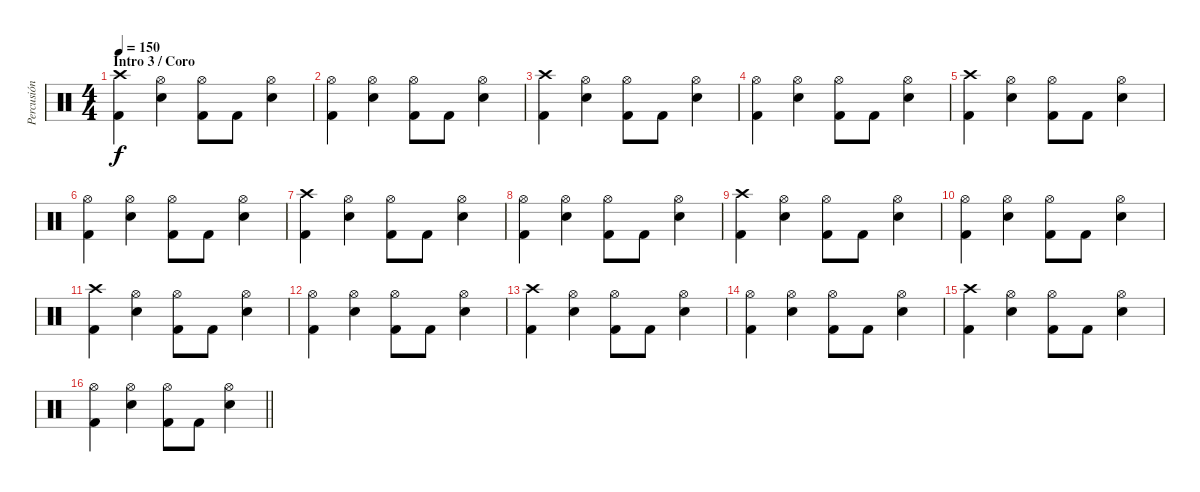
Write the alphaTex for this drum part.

\track ("Percusión" "Percusión") {instrument percussion}
\staff {score}
\articulation defaults
\ts (4 4)
\section ("" "Intro 3 / Coro")
\tempo 150
\clef neutral
\ks c
("Crash high (hit)" "Kick (hit) 2").4{dy f} ("Hi-Hat (open)" "Electric Snare (hit)").4 ("Hi-Hat (open)" "Kick (hit) 2").8 "Kick (hit) 2".8 ("Hi-Hat (open)" "Electric Snare (hit)").4 |
("Hi-Hat (open)" "Kick (hit) 2").4 ("Hi-Hat (open)" "Electric Snare (hit)").4 ("Hi-Hat (open)" "Kick (hit) 2").8 "Kick (hit) 2".8 ("Hi-Hat (open)" "Electric Snare (hit)").4 |
("Crash high (hit)" "Kick (hit) 2").4 ("Hi-Hat (open)" "Electric Snare (hit)").4 ("Hi-Hat (open)" "Kick (hit) 2").8 "Kick (hit) 2".8 ("Hi-Hat (open)" "Electric Snare (hit)").4 |
("Hi-Hat (open)" "Kick (hit) 2").4 ("Hi-Hat (open)" "Electric Snare (hit)").4 ("Hi-Hat (open)" "Kick (hit) 2").8 "Kick (hit) 2".8 ("Hi-Hat (open)" "Electric Snare (hit)").4 |
("Crash high (hit)" "Kick (hit) 2").4 ("Hi-Hat (open)" "Electric Snare (hit)").4 ("Hi-Hat (open)" "Kick (hit) 2").8 "Kick (hit) 2".8 ("Hi-Hat (open)" "Electric Snare (hit)").4 |
("Hi-Hat (open)" "Kick (hit) 2").4 ("Hi-Hat (open)" "Electric Snare (hit)").4 ("Hi-Hat (open)" "Kick (hit) 2").8 "Kick (hit) 2".8 ("Hi-Hat (open)" "Electric Snare (hit)").4 |
("Crash high (hit)" "Kick (hit) 2").4 ("Hi-Hat (open)" "Electric Snare (hit)").4 ("Hi-Hat (open)" "Kick (hit) 2").8 "Kick (hit) 2".8 ("Hi-Hat (open)" "Electric Snare (hit)").4 |
("Hi-Hat (open)" "Kick (hit) 2").4 ("Hi-Hat (open)" "Electric Snare (hit)").4 ("Hi-Hat (open)" "Kick (hit) 2").8 "Kick (hit) 2".8 ("Hi-Hat (open)" "Electric Snare (hit)").4 |
("Crash high (hit)" "Kick (hit) 2").4 ("Hi-Hat (open)" "Electric Snare (hit)").4 ("Hi-Hat (open)" "Kick (hit) 2").8 "Kick (hit) 2".8 ("Hi-Hat (open)" "Electric Snare (hit)").4 |
("Hi-Hat (open)" "Kick (hit) 2").4 ("Hi-Hat (open)" "Electric Snare (hit)").4 ("Hi-Hat (open)" "Kick (hit) 2").8 "Kick (hit) 2".8 ("Hi-Hat (open)" "Electric Snare (hit)").4 |
("Crash high (hit)" "Kick (hit) 2").4 ("Hi-Hat (open)" "Electric Snare (hit)").4 ("Hi-Hat (open)" "Kick (hit) 2").8 "Kick (hit) 2".8 ("Hi-Hat (open)" "Electric Snare (hit)").4 |
("Hi-Hat (open)" "Kick (hit) 2").4 ("Hi-Hat (open)" "Electric Snare (hit)").4 ("Hi-Hat (open)" "Kick (hit) 2").8 "Kick (hit) 2".8 ("Hi-Hat (open)" "Electric Snare (hit)").4 |
("Crash high (hit)" "Kick (hit) 2").4 ("Hi-Hat (open)" "Electric Snare (hit)").4 ("Hi-Hat (open)" "Kick (hit) 2").8 "Kick (hit) 2".8 ("Hi-Hat (open)" "Electric Snare (hit)").4 |
("Hi-Hat (open)" "Kick (hit) 2").4 ("Hi-Hat (open)" "Electric Snare (hit)").4 ("Hi-Hat (open)" "Kick (hit) 2").8 "Kick (hit) 2".8 ("Hi-Hat (open)" "Electric Snare (hit)").4 |
("Crash high (hit)" "Kick (hit) 2").4 ("Hi-Hat (open)" "Electric Snare (hit)").4 ("Hi-Hat (open)" "Kick (hit) 2").8 "Kick (hit) 2".8 ("Hi-Hat (open)" "Electric Snare (hit)").4 |
\barLineRight lightlight
("Hi-Hat (open)" "Kick (hit) 2").4 ("Hi-Hat (open)" "Electric Snare (hit)").4 ("Hi-Hat (open)" "Kick (hit) 2").8 "Kick (hit) 2".8 ("Hi-Hat (open)" "Electric Snare (hit)").4
